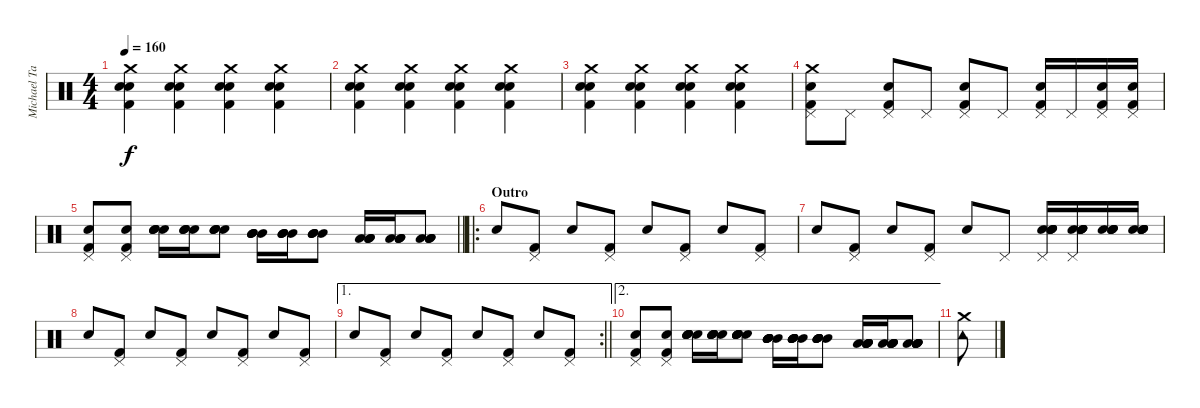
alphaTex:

\track ("Michael Tapper" "Michael Ta") {instrument percussion}
\staff {score}
\articulation defaults
\ts (4 4)
\tempo 160
\clef neutral
\ks c
("Crash medium (hit)" "Electric Snare (hit)" "Electric Snare (hit)" "Kick (hit) 2").4{dy f} ("Crash medium (hit)" "Electric Snare (hit)" "Electric Snare (hit)" "Kick (hit) 2").4 ("Crash medium (hit)" "Electric Snare (hit)" "Electric Snare (hit)" "Kick (hit) 2").4 ("Crash medium (hit)" "Electric Snare (hit)" "Electric Snare (hit)" "Kick (hit) 2").4 |
("Crash medium (hit)" "Electric Snare (hit)" "Electric Snare (hit)" "Kick (hit) 2").4 ("Crash medium (hit)" "Electric Snare (hit)" "Electric Snare (hit)" "Kick (hit) 2").4 ("Crash medium (hit)" "Electric Snare (hit)" "Electric Snare (hit)" "Kick (hit) 2").4 ("Crash medium (hit)" "Electric Snare (hit)" "Electric Snare (hit)" "Kick (hit) 2").4 |
("Crash medium (hit)" "Electric Snare (hit)" "Electric Snare (hit)" "Kick (hit) 2").4 ("Crash medium (hit)" "Electric Snare (hit)" "Electric Snare (hit)" "Kick (hit) 2").4 ("Crash medium (hit)" "Electric Snare (hit)" "Electric Snare (hit)" "Kick (hit) 2").4 ("Crash medium (hit)" "Electric Snare (hit)" "Electric Snare (hit)" "Kick (hit) 2").4 |
("Crash medium (hit)" "Pedal Hi-Hat (hit)" "Electric Snare (hit)" "Kick (hit) 2").8 "Pedal Hi-Hat (hit)".8 ("Pedal Hi-Hat (hit)" "Electric Snare (hit)" "Kick (hit) 2").8 "Pedal Hi-Hat (hit)".8 ("Pedal Hi-Hat (hit)" "Electric Snare (hit)" "Kick (hit) 2").8 "Pedal Hi-Hat (hit)".8 ("Pedal Hi-Hat (hit)" "Electric Snare (hit)" "Kick (hit) 2").16 "Pedal Hi-Hat (hit)".16 ("Pedal Hi-Hat (hit)" "Electric Snare (hit)" "Kick (hit) 2").16 ("Pedal Hi-Hat (hit)" "Electric Snare (hit)" "Kick (hit) 2").16 |
\barLineRight lightlight
("Pedal Hi-Hat (hit)" "Electric Snare (hit)" "Kick (hit) 2").8 ("Pedal Hi-Hat (hit)" "Electric Snare (hit)" "Kick (hit) 2").8 ("Electric Snare (hit)" "Electric Snare (hit)" "Electric Snare (hit)" "Electric Snare (hit)").16 ("Electric Snare (hit)" "Electric Snare (hit)" "Electric Snare (hit)" "Electric Snare (hit)").16 ("Electric Snare (hit)" "Electric Snare (hit)" "Electric Snare (hit)" "Electric Snare (hit)").8 ("Mid Tom (hit)" "Mid Tom (hit)" "Mid Tom (hit)" "Mid Tom (hit)").16 ("Mid Tom (hit)" "Mid Tom (hit)" "Mid Tom (hit)" "Mid Tom (hit)").16 ("Mid Tom (hit)" "Mid Tom (hit)" "Mid Tom (hit)" "Mid Tom (hit)").8 ("Low Tom (hit)" "Low Tom (hit)" "Low Tom (hit)" "Low Tom (hit)").16 ("Low Tom (hit)" "Low Tom (hit)" "Low Tom (hit)" "Low Tom (hit)").16 ("Low Tom (hit)" "Low Tom (hit)" "Low Tom (hit)" "Low Tom (hit)").8 |
\ro
\section ("" "Outro")
"Electric Snare (hit)".8 ("Pedal Hi-Hat (hit)" "Kick (hit) 2").8 "Electric Snare (hit)".8 ("Pedal Hi-Hat (hit)" "Kick (hit) 2").8 "Electric Snare (hit)".8 ("Pedal Hi-Hat (hit)" "Kick (hit) 2").8 "Electric Snare (hit)".8 ("Pedal Hi-Hat (hit)" "Kick (hit) 2").8 |
"Electric Snare (hit)".8 ("Pedal Hi-Hat (hit)" "Kick (hit) 2").8 "Electric Snare (hit)".8 ("Pedal Hi-Hat (hit)" "Kick (hit) 2").8 "Electric Snare (hit)".8 "Pedal Hi-Hat (hit)".8 ("Pedal Hi-Hat (hit)" "Electric Snare (hit)" "Electric Snare (hit)" "Electric Snare (hit)" "Electric Snare (hit)" "Electric Snare (hit)").16 ("Pedal Hi-Hat (hit)" "Electric Snare (hit)" "Electric Snare (hit)" "Electric Snare (hit)" "Electric Snare (hit)" "Electric Snare (hit)").16 ("Electric Snare (hit)" "Electric Snare (hit)" "Electric Snare (hit)" "Electric Snare (hit)" "Electric Snare (hit)").16 ("Electric Snare (hit)" "Electric Snare (hit)" "Electric Snare (hit)" "Electric Snare (hit)" "Electric Snare (hit)").16 |
"Electric Snare (hit)".8 ("Pedal Hi-Hat (hit)" "Kick (hit) 2").8 "Electric Snare (hit)".8 ("Pedal Hi-Hat (hit)" "Kick (hit) 2").8 "Electric Snare (hit)".8 ("Pedal Hi-Hat (hit)" "Kick (hit) 2").8 "Electric Snare (hit)".8 ("Pedal Hi-Hat (hit)" "Kick (hit) 2").8 |
\ae 1
\rc 2
\barLineRight lightlight "Electric Snare (hit)".8
("Pedal Hi-Hat (hit)" "Kick (hit) 2").8 "Electric Snare (hit)".8 ("Pedal Hi-Hat (hit)" "Kick (hit) 2").8 "Electric Snare (hit)".8 ("Pedal Hi-Hat (hit)" "Kick (hit) 2").8 "Electric Snare (hit)".8 ("Pedal Hi-Hat (hit)" "Kick (hit) 2").8 |
\ae 2
("Pedal Hi-Hat (hit)" "Electric Snare (hit)" "Kick (hit) 2").8 ("Pedal Hi-Hat (hit)" "Electric Snare (hit)" "Kick (hit) 2").8 ("Electric Snare (hit)" "Electric Snare (hit)" "Electric Snare (hit)" "Electric Snare (hit)" "Electric Snare (hit)" "Electric Snare (hit)").16 ("Electric Snare (hit)" "Electric Snare (hit)" "Electric Snare (hit)" "Electric Snare (hit)" "Electric Snare (hit)" "Electric Snare (hit)").16 ("Electric Snare (hit)" "Electric Snare (hit)" "Electric Snare (hit)" "Electric Snare (hit)" "Electric Snare (hit)" "Electric Snare (hit)").8 ("Mid Tom (hit)" "Mid Tom (hit)" "Mid Tom (hit)" "Mid Tom (hit)" "Mid Tom (hit)" "Mid Tom (hit)").16 ("Mid Tom (hit)" "Mid Tom (hit)" "Mid Tom (hit)" "Mid Tom (hit)" "Mid Tom (hit)" "Mid Tom (hit)").16 ("Mid Tom (hit)" "Mid Tom (hit)" "Mid Tom (hit)" "Mid Tom (hit)" "Mid Tom (hit)" "Mid Tom (hit)").8 ("Low Tom (hit)" "Low Tom (hit)" "Low Tom (hit)" "Low Tom (hit)" "Low Tom (hit)" "Low Tom (hit)").16 ("Low Tom (hit)" "Low Tom (hit)" "Low Tom (hit)" "Low Tom (hit)" "Low Tom (hit)" "Low Tom (hit)").16 ("Low Tom (hit)" "Low Tom (hit)" "Low Tom (hit)" "Low Tom (hit)" "Low Tom (hit)" "Low Tom (hit)").8 |
("Crash medium (hit)" "Tambourine (hit)").8
